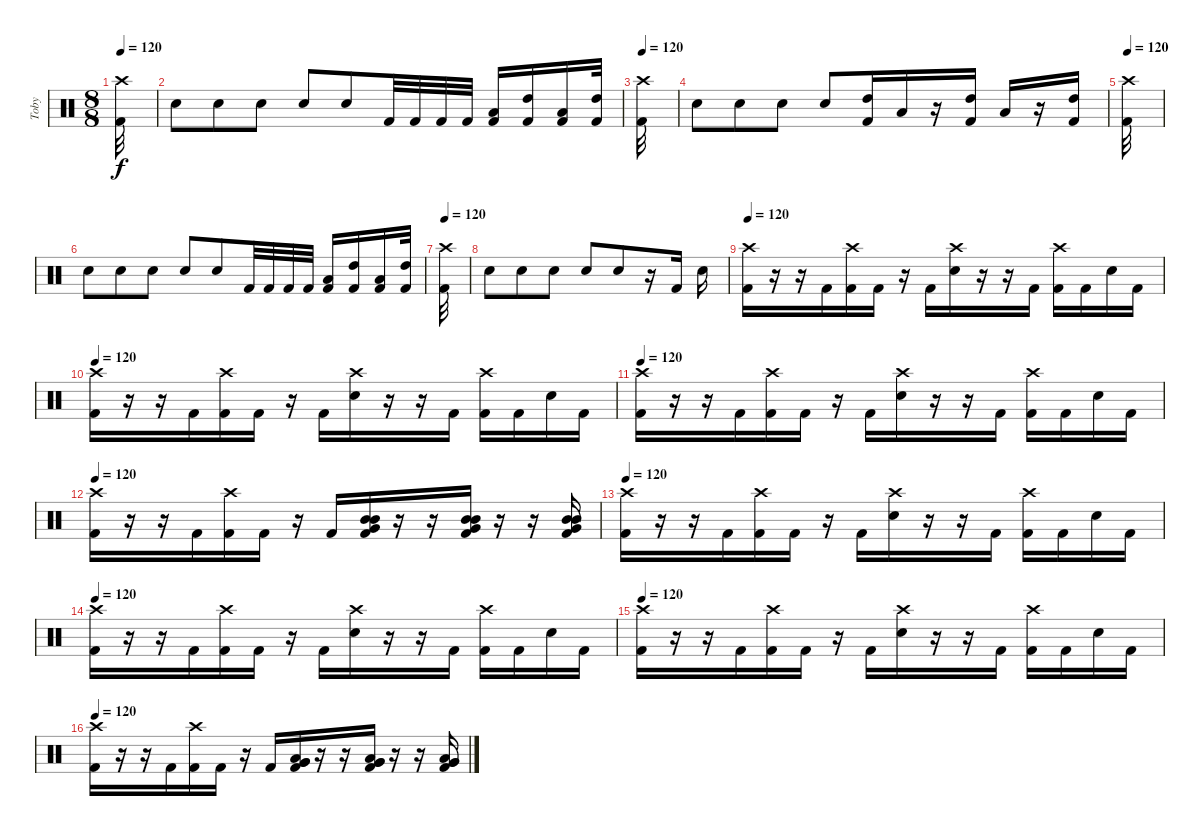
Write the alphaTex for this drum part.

\track ("Toby" "Toby") {instrument percussion}
\staff {score}
\articulation defaults
\ts (8 8)
\tempo 120
\clef neutral
\ks c
("Crash high (hit)" "Kick (hit) 2").32{dy f} |
"Snare (hit)".8 "Snare (hit)".8 "Snare (hit)".8 "Snare (hit)".8 "Snare (hit)".8 "Kick (hit) 2".32 "Kick (hit) 2".32 "Kick (hit) 2".32 "Kick (hit) 2".32 ("Low Tom (hit)" "Kick (hit) 2").16 ("High Tom (hit)" "Kick (hit) 2").16 ("Low Tom (hit)" "Kick (hit) 2").16 ("High Tom (hit)" "Kick (hit) 2").32 |
\tempo 120
("Crash high (hit)" "Kick (hit) 2").32 |
"Snare (hit)".8 "Snare (hit)".8 "Snare (hit)".8 "Snare (hit)".8 ("High Tom (hit)" "Kick (hit) 2").16 "Low Tom (hit)".16 r.16 ("High Tom (hit)" "Kick (hit) 2").16 "Low Tom (hit)".16 r.16 ("High Tom (hit)" "Kick (hit) 2").16 |
\tempo 120
("Crash high (hit)" "Kick (hit) 2").32 |
"Snare (hit)".8 "Snare (hit)".8 "Snare (hit)".8 "Snare (hit)".8 "Snare (hit)".8 "Kick (hit) 2".32 "Kick (hit) 2".32 "Kick (hit) 2".32 "Kick (hit) 2".32 ("Low Tom (hit)" "Kick (hit) 2").16 ("High Tom (hit)" "Kick (hit) 2").16 ("Low Tom (hit)" "Kick (hit) 2").16 ("High Tom (hit)" "Kick (hit) 2").32 |
\tempo 120
("Crash high (hit)" "Kick (hit) 2").32 |
"Snare (hit)".8 "Snare (hit)".8 "Snare (hit)".8 "Snare (hit)".8 "Snare (hit)".8 r.16 "Kick (hit) 2".16 "Electric Snare (hit)".16 |
\tempo 120
("Crash high (hit)" "Kick (hit) 2").16 r.16 r.16 "Kick (hit) 2".16 ("Crash high (hit)" "Kick (hit) 2").16 "Kick (hit) 2".16 r.16 "Kick (hit) 2".16 ("Crash high (hit)" "Electric Snare (hit)").16 r.16 r.16 "Kick (hit) 2".16 ("Crash high (hit)" "Kick (hit) 2").16 "Kick (hit) 2".16 "Snare (hit)".16 "Kick (hit) 2".16 |
\tempo 120
("Crash high (hit)" "Kick (hit) 2").16 r.16 r.16 "Kick (hit) 2".16 ("Crash high (hit)" "Kick (hit) 2").16 "Kick (hit) 2".16 r.16 "Kick (hit) 2".16 ("Crash high (hit)" "Electric Snare (hit)").16 r.16 r.16 "Kick (hit) 2".16 ("Crash high (hit)" "Kick (hit) 2").16 "Kick (hit) 2".16 "Snare (hit)".16 "Kick (hit) 2".16 |
\tempo 120
("Crash high (hit)" "Kick (hit) 2").16 r.16 r.16 "Kick (hit) 2".16 ("Crash high (hit)" "Kick (hit) 2").16 "Kick (hit) 2".16 r.16 "Kick (hit) 2".16 ("Crash high (hit)" "Electric Snare (hit)").16 r.16 r.16 "Kick (hit) 2".16 ("Crash high (hit)" "Kick (hit) 2").16 "Kick (hit) 2".16 "Snare (hit)".16 "Kick (hit) 2".16 |
\tempo 120
("Crash high (hit)" "Kick (hit) 2").16 r.16 r.16 "Kick (hit) 2".16 ("Crash high (hit)" "Kick (hit) 2").16 "Kick (hit) 2".16 r.16 "Kick (hit) 2".16 ("Mid Tom (hit)" "Mid Tom (hit)" "Very Low Tom (hit)" "Kick (hit) 2").16 r.16 r.16 ("Mid Tom (hit)" "Mid Tom (hit)" "Very Low Tom (hit)" "Kick (hit) 2").16 r.16 r.16 ("Mid Tom (hit)" "Mid Tom (hit)" "Very Low Tom (hit)" "Kick (hit) 2").16 |
\tempo 120
("Crash high (hit)" "Kick (hit) 2").16 r.16 r.16 "Kick (hit) 2".16 ("Crash high (hit)" "Kick (hit) 2").16 "Kick (hit) 2".16 r.16 "Kick (hit) 2".16 ("Crash high (hit)" "Electric Snare (hit)").16 r.16 r.16 "Kick (hit) 2".16 ("Crash high (hit)" "Kick (hit) 2").16 "Kick (hit) 2".16 "Snare (hit)".16 "Kick (hit) 2".16 |
\tempo 120
("Crash high (hit)" "Kick (hit) 2").16 r.16 r.16 "Kick (hit) 2".16 ("Crash high (hit)" "Kick (hit) 2").16 "Kick (hit) 2".16 r.16 "Kick (hit) 2".16 ("Crash high (hit)" "Electric Snare (hit)").16 r.16 r.16 "Kick (hit) 2".16 ("Crash high (hit)" "Kick (hit) 2").16 "Kick (hit) 2".16 "Snare (hit)".16 "Kick (hit) 2".16 |
\tempo 120
("Crash high (hit)" "Kick (hit) 2").16 r.16 r.16 "Kick (hit) 2".16 ("Crash high (hit)" "Kick (hit) 2").16 "Kick (hit) 2".16 r.16 "Kick (hit) 2".16 ("Crash high (hit)" "Electric Snare (hit)").16 r.16 r.16 "Kick (hit) 2".16 ("Crash high (hit)" "Kick (hit) 2").16 "Kick (hit) 2".16 "Snare (hit)".16 "Kick (hit) 2".16 |
\tempo 120
("Crash high (hit)" "Kick (hit) 2").16 r.16 r.16 "Kick (hit) 2".16 ("Crash high (hit)" "Kick (hit) 2").16 "Kick (hit) 2".16 r.16 "Kick (hit) 2".16 ("Low Tom (hit)" "Very Low Tom (hit)" "Very Low Tom (hit)" "Kick (hit) 2").16 r.16 r.16 ("Low Tom (hit)" "Very Low Tom (hit)" "Very Low Tom (hit)" "Kick (hit) 2").16 r.16 r.16 ("Low Tom (hit)" "Very Low Tom (hit)" "Very Low Tom (hit)" "Kick (hit) 2").16
